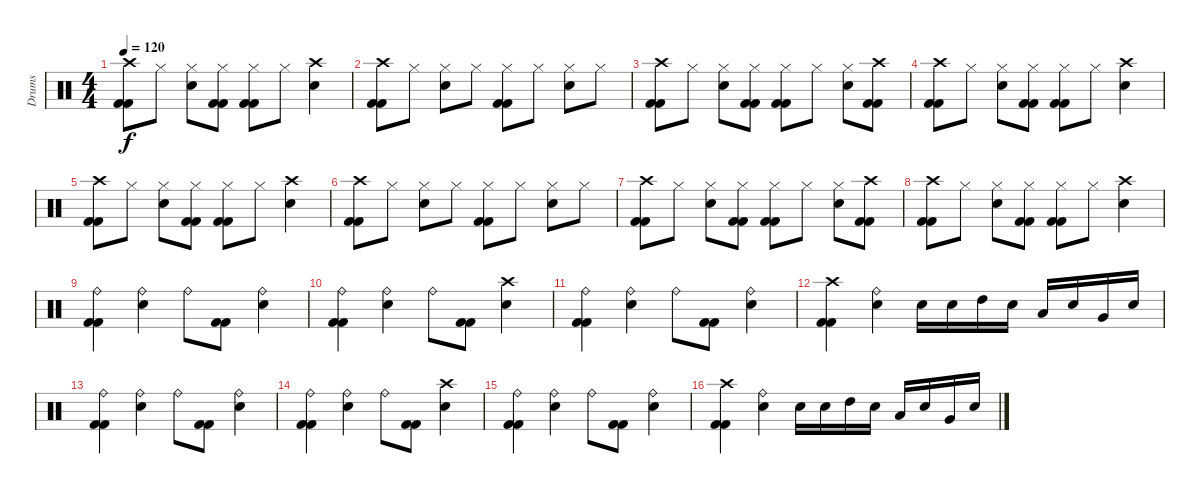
\track ("Drums" "Drums") {instrument percussion}
\staff {score}
\articulation defaults
\ts (4 4)
\tempo 120
\clef neutral
\ks c
("Crash high (hit)" "Kick (hit) 2" "Kick (hit) 2").8{dy f} "Hi-Hat (closed)".8 ("Electric Snare (hit)" "Hi-Hat (closed)").8 ("Hi-Hat (closed)" "Kick (hit) 2" "Kick (hit) 2").8 ("Kick (hit) 2" "Kick (hit) 2" "Hi-Hat (closed)").8 "Hi-Hat (closed)".8 ("Electric Snare (hit)" "Crash high (hit)").4 |
("Crash high (hit)" "Kick (hit) 2" "Kick (hit) 2").8 "Hi-Hat (closed)".8 ("Electric Snare (hit)" "Hi-Hat (closed)").8 "Hi-Hat (closed)".8 ("Kick (hit) 2" "Kick (hit) 2" "Hi-Hat (closed)").8 "Hi-Hat (closed)".8 ("Electric Snare (hit)" "Hi-Hat (closed)").8 "Hi-Hat (closed)".8 |
("Crash high (hit)" "Kick (hit) 2" "Kick (hit) 2").8 "Hi-Hat (closed)".8 ("Electric Snare (hit)" "Hi-Hat (closed)").8 ("Hi-Hat (closed)" "Kick (hit) 2" "Kick (hit) 2").8 ("Kick (hit) 2" "Kick (hit) 2" "Hi-Hat (closed)").8 "Hi-Hat (closed)".8 ("Electric Snare (hit)" "Hi-Hat (closed)").8 ("Crash high (hit)" "Kick (hit) 2" "Kick (hit) 2").8 |
("Crash high (hit)" "Kick (hit) 2" "Kick (hit) 2").8 "Hi-Hat (closed)".8 ("Electric Snare (hit)" "Hi-Hat (closed)").8 ("Hi-Hat (closed)" "Kick (hit) 2" "Kick (hit) 2").8 ("Kick (hit) 2" "Kick (hit) 2" "Hi-Hat (closed)").8 "Hi-Hat (closed)".8 ("Electric Snare (hit)" "Crash high (hit)").4 |
("Crash high (hit)" "Kick (hit) 2" "Kick (hit) 2").8 "Hi-Hat (closed)".8 ("Electric Snare (hit)" "Hi-Hat (closed)").8 ("Hi-Hat (closed)" "Kick (hit) 2" "Kick (hit) 2").8 ("Kick (hit) 2" "Kick (hit) 2" "Hi-Hat (closed)").8 "Hi-Hat (closed)".8 ("Electric Snare (hit)" "Crash high (hit)").4 |
("Crash high (hit)" "Kick (hit) 2" "Kick (hit) 2").8 "Hi-Hat (closed)".8 ("Electric Snare (hit)" "Hi-Hat (closed)").8 "Hi-Hat (closed)".8 ("Kick (hit) 2" "Kick (hit) 2" "Hi-Hat (closed)").8 "Hi-Hat (closed)".8 ("Electric Snare (hit)" "Hi-Hat (closed)").8 "Hi-Hat (closed)".8 |
("Crash high (hit)" "Kick (hit) 2" "Kick (hit) 2").8 "Hi-Hat (closed)".8 ("Electric Snare (hit)" "Hi-Hat (closed)").8 ("Hi-Hat (closed)" "Kick (hit) 2" "Kick (hit) 2").8 ("Kick (hit) 2" "Kick (hit) 2" "Hi-Hat (closed)").8 "Hi-Hat (closed)".8 ("Electric Snare (hit)" "Hi-Hat (closed)").8 ("Crash high (hit)" "Kick (hit) 2" "Kick (hit) 2").8 |
("Crash high (hit)" "Kick (hit) 2" "Kick (hit) 2").8 "Hi-Hat (closed)".8 ("Electric Snare (hit)" "Hi-Hat (closed)").8 ("Hi-Hat (closed)" "Kick (hit) 2" "Kick (hit) 2").8 ("Kick (hit) 2" "Kick (hit) 2" "Hi-Hat (closed)").8 "Hi-Hat (closed)".8 ("Electric Snare (hit)" "Crash high (hit)").4 |
("Ride (bell)" "Kick (hit) 2" "Kick (hit) 2").4 ("Electric Snare (hit)" "Ride (bell)").4 "Ride (bell)".8 ("Kick (hit) 2" "Kick (hit) 2").8 ("Electric Snare (hit)" "Ride (bell)").4 |
("Ride (bell)" "Kick (hit) 2" "Kick (hit) 2").4 ("Electric Snare (hit)" "Ride (bell)").4 "Ride (bell)".8 ("Kick (hit) 2" "Kick (hit) 2").8 ("Electric Snare (hit)" "Crash high (hit)").4 |
("Ride (bell)" "Kick (hit) 2" "Kick (hit) 2").4 ("Electric Snare (hit)" "Ride (bell)").4 "Ride (bell)".8 ("Kick (hit) 2" "Kick (hit) 2").8 ("Electric Snare (hit)" "Ride (bell)").4 |
("Crash high (hit)" "Kick (hit) 2" "Kick (hit) 2").4 ("Electric Snare (hit)" "Ride (bell)").4 "Electric Snare (hit)".16 "Electric Snare (hit)".16 "High Tom (hit)".16 "Electric Snare (hit)".16 "Low Tom (hit)".16 "Electric Snare (hit)".16 "Very Low Tom (hit)".16 "Electric Snare (hit)".16 |
("Ride (bell)" "Kick (hit) 2" "Kick (hit) 2").4 ("Electric Snare (hit)" "Ride (bell)").4 "Ride (bell)".8 ("Kick (hit) 2" "Kick (hit) 2").8 ("Electric Snare (hit)" "Ride (bell)").4 |
("Ride (bell)" "Kick (hit) 2" "Kick (hit) 2").4 ("Electric Snare (hit)" "Ride (bell)").4 "Ride (bell)".8 ("Kick (hit) 2" "Kick (hit) 2").8 ("Electric Snare (hit)" "Crash high (hit)").4 |
("Ride (bell)" "Kick (hit) 2" "Kick (hit) 2").4 ("Electric Snare (hit)" "Ride (bell)").4 "Ride (bell)".8 ("Kick (hit) 2" "Kick (hit) 2").8 ("Electric Snare (hit)" "Ride (bell)").4 |
("Crash high (hit)" "Kick (hit) 2" "Kick (hit) 2").4 ("Electric Snare (hit)" "Ride (bell)").4 "Electric Snare (hit)".16 "Electric Snare (hit)".16 "High Tom (hit)".16 "Electric Snare (hit)".16 "Low Tom (hit)".16 "Electric Snare (hit)".16 "Very Low Tom (hit)".16 "Electric Snare (hit)".16
